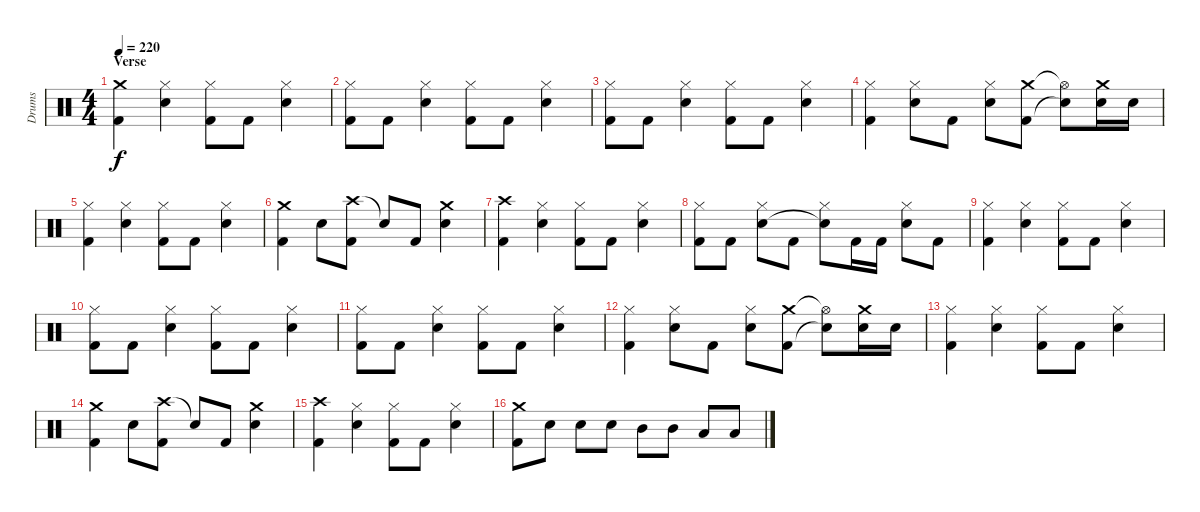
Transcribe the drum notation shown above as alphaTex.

\track ("Drums" "Drums") {instrument percussion}
\staff {score}
\articulation defaults
\ts (4 4)
\section ("" "Verse")
\tempo 220
\clef neutral
\ks c
("Crash medium (hit)" "Kick (hit) 2").4{dy f} ("Hi-Hat (closed)" "Electric Snare (hit)").4 ("Hi-Hat (closed)" "Kick (hit) 2").8 "Kick (hit) 2".8 ("Hi-Hat (closed)" "Electric Snare (hit)").4 |
("Hi-Hat (closed)" "Kick (hit) 2").8 "Kick (hit) 2".8 ("Hi-Hat (closed)" "Electric Snare (hit)").4 ("Hi-Hat (closed)" "Kick (hit) 2").8 "Kick (hit) 2".8 ("Hi-Hat (closed)" "Electric Snare (hit)").4 |
("Hi-Hat (closed)" "Kick (hit) 2").8 "Kick (hit) 2".8 ("Hi-Hat (closed)" "Electric Snare (hit)").4 ("Hi-Hat (closed)" "Kick (hit) 2").8 "Kick (hit) 2".8 ("Hi-Hat (closed)" "Electric Snare (hit)").4 |
("Hi-Hat (closed)" "Kick (hit) 2").4 ("Hi-Hat (closed)" "Electric Snare (hit)").8 "Kick (hit) 2".8 ("Hi-Hat (closed)" "Electric Snare (hit)").8 ("Crash medium (hit)" "Kick (hit) 2").8 ("Hi-Hat (open)"{t} "Snare (hit)"{t}).8 ("Crash medium (hit)" "Electric Snare (hit)").16 "Electric Snare (hit)".16 |
("Hi-Hat (closed)" "Kick (hit) 2").4 ("Hi-Hat (closed)" "Electric Snare (hit)").4 ("Hi-Hat (closed)" "Kick (hit) 2").8 "Kick (hit) 2".8 ("Hi-Hat (closed)" "Electric Snare (hit)").4 |
("Crash medium (hit)" "Kick (hit) 2").4 "Electric Snare (hit)".8 ("Crash high (hit)" "Kick (hit) 2").8 "Snare (hit)"{t}.8 "Kick (hit) 2".8 ("Crash medium (hit)" "Electric Snare (hit)").4 |
("Crash high (hit)" "Kick (hit) 2").4 ("Hi-Hat (closed)" "Electric Snare (hit)").4 ("Hi-Hat (closed)" "Kick (hit) 2").8 "Kick (hit) 2".8 ("Hi-Hat (closed)" "Electric Snare (hit)").4 |
("Hi-Hat (closed)" "Kick (hit) 2").8 "Kick (hit) 2".8 ("Hi-Hat (closed)" "Electric Snare (hit)").8 "Kick (hit) 2".8 ("Hi-Hat (closed)" "Snare (hit)"{t}).8 "Kick (hit) 2".16 "Kick (hit) 2".16 ("Hi-Hat (closed)" "Electric Snare (hit)").8 "Kick (hit) 2".8 |
("Hi-Hat (closed)" "Kick (hit) 2").4 ("Hi-Hat (closed)" "Electric Snare (hit)").4 ("Hi-Hat (closed)" "Kick (hit) 2").8 "Kick (hit) 2".8 ("Hi-Hat (closed)" "Electric Snare (hit)").4 |
("Hi-Hat (closed)" "Kick (hit) 2").8 "Kick (hit) 2".8 ("Hi-Hat (closed)" "Electric Snare (hit)").4 ("Hi-Hat (closed)" "Kick (hit) 2").8 "Kick (hit) 2".8 ("Hi-Hat (closed)" "Electric Snare (hit)").4 |
("Hi-Hat (closed)" "Kick (hit) 2").8 "Kick (hit) 2".8 ("Hi-Hat (closed)" "Electric Snare (hit)").4 ("Hi-Hat (closed)" "Kick (hit) 2").8 "Kick (hit) 2".8 ("Hi-Hat (closed)" "Electric Snare (hit)").4 |
("Hi-Hat (closed)" "Kick (hit) 2").4 ("Hi-Hat (closed)" "Electric Snare (hit)").8 "Kick (hit) 2".8 ("Hi-Hat (closed)" "Electric Snare (hit)").8 ("Crash medium (hit)" "Kick (hit) 2").8 ("Hi-Hat (open)"{t} "Snare (hit)"{t}).8 ("Crash medium (hit)" "Electric Snare (hit)").16 "Electric Snare (hit)".16 |
("Hi-Hat (closed)" "Kick (hit) 2").4 ("Hi-Hat (closed)" "Electric Snare (hit)").4 ("Hi-Hat (closed)" "Kick (hit) 2").8 "Kick (hit) 2".8 ("Hi-Hat (closed)" "Electric Snare (hit)").4 |
("Crash medium (hit)" "Kick (hit) 2").4 "Electric Snare (hit)".8 ("Crash high (hit)" "Kick (hit) 2").8 "Snare (hit)"{t}.8 "Kick (hit) 2".8 ("Crash medium (hit)" "Electric Snare (hit)").4 |
("Crash high (hit)" "Kick (hit) 2").4 ("Hi-Hat (closed)" "Electric Snare (hit)").4 ("Hi-Hat (closed)" "Kick (hit) 2").8 "Kick (hit) 2".8 ("Hi-Hat (closed)" "Electric Snare (hit)").4 |
("Crash medium (hit)" "Kick (hit) 2").8 "Electric Snare (hit)".8 "Electric Snare (hit)".8 "Electric Snare (hit)".8 "Mid Tom (hit)".8 "Mid Tom (hit)".8 "Low Tom (hit)".8 "Low Tom (hit)".8
